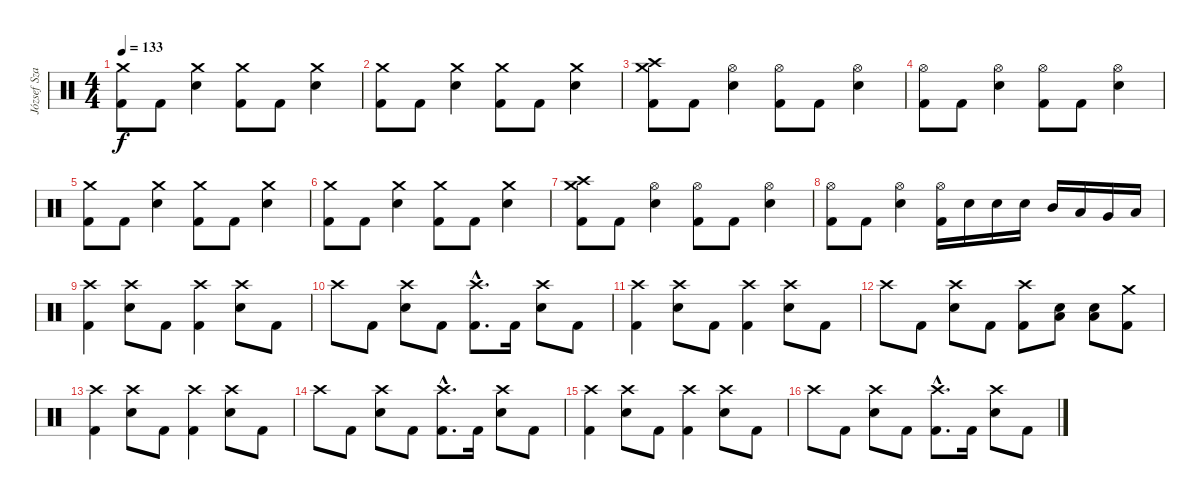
\track ("József Szakács (Drums)" "József Sza") {instrument percussion}
\staff {score}
\articulation defaults
\ts (4 4)
\tempo 133
\clef neutral
\ks c
("Crash medium (hit)" "Kick (hit) 2").8{dy f} "Kick (hit) 2".8 ("Crash medium (hit)" "Snare (hit) 2").4 ("Crash medium (hit)" "Kick (hit) 2").8 "Kick (hit) 2".8 ("Crash medium (hit)" "Snare (hit) 2").4 |
("Crash medium (hit)" "Kick (hit) 2").8 "Kick (hit) 2".8 ("Crash medium (hit)" "Snare (hit) 2").4 ("Crash medium (hit)" "Kick (hit) 2").8 "Kick (hit) 2".8 ("Crash medium (hit)" "Snare (hit) 2").4 |
("Crash high (hit)" "Crash medium (hit)" "Kick (hit) 2").8 "Kick (hit) 2".8 ("Hi-Hat (open)" "Snare (hit) 2").4 ("Hi-Hat (open)" "Kick (hit) 2").8 "Kick (hit) 2".8 ("Hi-Hat (open)" "Snare (hit) 2").4 |
("Hi-Hat (open)" "Kick (hit) 2").8 "Kick (hit) 2".8 ("Hi-Hat (open)" "Snare (hit) 2").4 ("Hi-Hat (open)" "Kick (hit) 2").8 "Kick (hit) 2".8 ("Hi-Hat (open)" "Snare (hit) 2").4 |
("Crash medium (hit)" "Kick (hit) 2").8 "Kick (hit) 2".8 ("Crash medium (hit)" "Snare (hit) 2").4 ("Crash medium (hit)" "Kick (hit) 2").8 "Kick (hit) 2".8 ("Crash medium (hit)" "Snare (hit) 2").4 |
("Crash medium (hit)" "Kick (hit) 2").8 "Kick (hit) 2".8 ("Crash medium (hit)" "Snare (hit) 2").4 ("Crash medium (hit)" "Kick (hit) 2").8 "Kick (hit) 2".8 ("Crash medium (hit)" "Snare (hit) 2").4 |
("Crash high (hit)" "Crash medium (hit)" "Kick (hit) 2").8 "Kick (hit) 2".8 ("Hi-Hat (open)" "Snare (hit) 2").4 ("Hi-Hat (open)" "Kick (hit) 2").8 "Kick (hit) 2".8 ("Hi-Hat (open)" "Snare (hit) 2").4 |
("Hi-Hat (open)" "Kick (hit) 2").8 "Kick (hit) 2".8 ("Hi-Hat (open)" "Snare (hit) 2").4 ("Hi-Hat (open)" "Kick (hit) 2").16 "Snare (hit) 2".16 "Snare (hit) 2".16 "Snare (hit) 2".16 "Mid Tom (hit)".16 "Low Tom (hit)".16 "Very Low Tom (hit)".16 "Low Floor Tom (hit)".16 |
("Crash high (hit)" "Kick (hit) 2").4 ("Crash high (hit)" "Snare (hit) 2").8 "Kick (hit) 2".8 ("Crash high (hit)" "Kick (hit) 2").4 ("Crash high (hit)" "Snare (hit) 2").8 "Kick (hit) 2".8 |
"Crash high (hit)".8 "Kick (hit) 2".8 ("Crash high (hit)" "Snare (hit) 2").8 "Kick (hit) 2".8 ("Crash high (hit)"{hac} "Kick (hit) 2"{hac}).8{d} "Kick (hit) 2".16 ("Crash high (hit)" "Snare (hit) 2").8 "Kick (hit) 2".8 |
("Crash high (hit)" "Kick (hit) 2").4 ("Crash high (hit)" "Snare (hit) 2").8 "Kick (hit) 2".8 ("Crash high (hit)" "Kick (hit) 2").4 ("Crash high (hit)" "Snare (hit) 2").8 "Kick (hit) 2".8 |
"Crash high (hit)".8 "Kick (hit) 2".8 ("Crash high (hit)" "Snare (hit) 2").8 "Kick (hit) 2".8 ("Crash high (hit)" "Kick (hit) 2").8 ("Low Floor Tom (hit)" "Snare (hit) 2").8 ("Low Floor Tom (hit)" "Snare (hit) 2").8 ("Crash medium (hit)" "Kick (hit) 2").8 |
("Crash high (hit)" "Kick (hit) 2").4 ("Crash high (hit)" "Snare (hit) 2").8 "Kick (hit) 2".8 ("Crash high (hit)" "Kick (hit) 2").4 ("Crash high (hit)" "Snare (hit) 2").8 "Kick (hit) 2".8 |
"Crash high (hit)".8 "Kick (hit) 2".8 ("Crash high (hit)" "Snare (hit) 2").8 "Kick (hit) 2".8 ("Crash high (hit)"{hac} "Kick (hit) 2"{hac}).8{d} "Kick (hit) 2".16 ("Crash high (hit)" "Snare (hit) 2").8 "Kick (hit) 2".8 |
("Crash high (hit)" "Kick (hit) 2").4 ("Crash high (hit)" "Snare (hit) 2").8 "Kick (hit) 2".8 ("Crash high (hit)" "Kick (hit) 2").4 ("Crash high (hit)" "Snare (hit) 2").8 "Kick (hit) 2".8 |
"Crash high (hit)".8 "Kick (hit) 2".8 ("Crash high (hit)" "Snare (hit) 2").8 "Kick (hit) 2".8 ("Crash high (hit)"{hac} "Kick (hit) 2"{hac}).8{d} "Kick (hit) 2".16 ("Crash high (hit)" "Snare (hit) 2").8 "Kick (hit) 2".8
